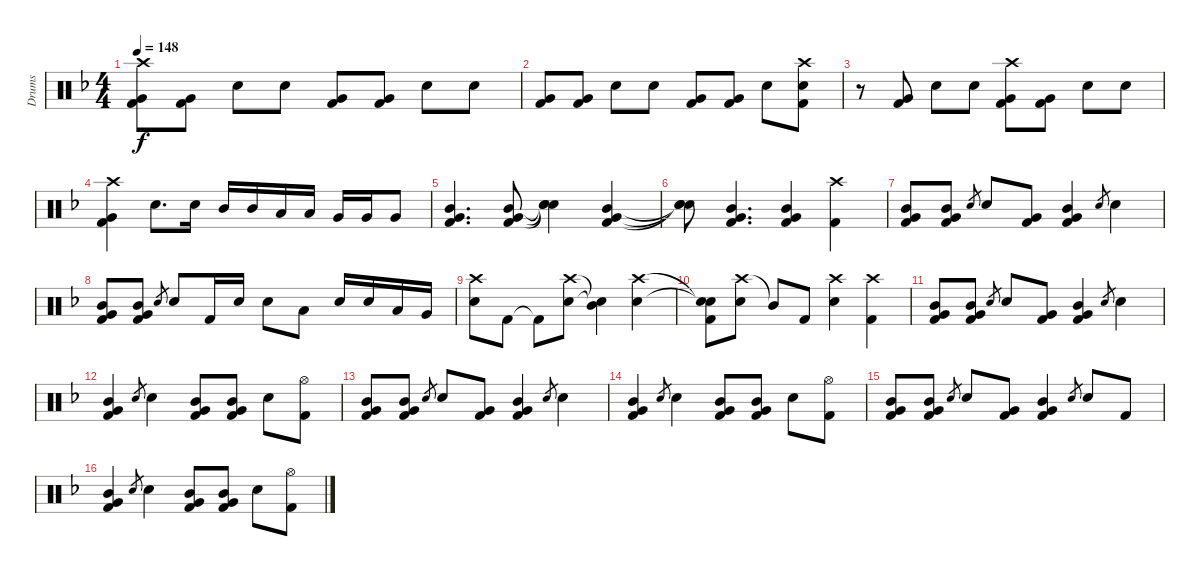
\track ("Drums" "Drums") {instrument percussion}
\staff {score}
\articulation defaults
\ts (4 4)
\tempo 148
\clef neutral
\ks f
("Crash high (hit)" "Very Low Tom (hit)" "Kick (hit) 2").8{dy f} ("Very Low Tom (hit)" "Kick (hit) 2").8 "Snare (hit) 2".8 "Snare (hit) 2".8 ("Very Low Tom (hit)" "Kick (hit) 2").8 ("Very Low Tom (hit)" "Kick (hit) 2").8 "Snare (hit) 2".8 "Snare (hit) 2".8 |
("Very Low Tom (hit)" "Kick (hit) 2").8 ("Very Low Tom (hit)" "Kick (hit) 2").8 "Snare (hit) 2".8 "Snare (hit) 2".8 ("Very Low Tom (hit)" "Kick (hit) 2").8 ("Very Low Tom (hit)" "Kick (hit) 2").8 "Snare (hit) 2".8 ("Crash high (hit)" "Snare (hit) 2" "Kick (hit) 2").8 |
r.8 ("Very Low Tom (hit)" "Kick (hit) 2").8 "Snare (hit) 2".8 "Snare (hit) 2".8 ("Crash high (hit)" "Very Low Tom (hit)" "Kick (hit) 2").8 ("Very Low Tom (hit)" "Kick (hit) 2").8 "Snare (hit) 2".8 "Snare (hit) 2".8 |
("Crash high (hit)" "Very Low Tom (hit)" "Kick (hit) 2").4 "Snare (hit) 2".8{d} "Snare (hit) 2".16 "Mid Tom (hit)".16 "Mid Tom (hit)".16 "Low Tom (hit)".16 "Low Tom (hit)".16 "Very Low Tom (hit)".16 "Very Low Tom (hit)".16 "Very Low Tom (hit)".8 |
("Mid Tom (hit)" "Very Low Tom (hit)" "Kick (hit) 2").4{d} ("Mid Tom (hit)" "Very Low Tom (hit)" "Kick (hit) 2").8 ("Snare (hit)"{t} "Snare (hit)"{t} "Snare (hit)"{t}).4 ("Mid Tom (hit)" "Very Low Tom (hit)" "Kick (hit) 2").4 |
("Snare (hit)"{t} "Snare (hit)"{t} "Snare (hit)"{t}).8 ("Mid Tom (hit)" "Very Low Tom (hit)" "Kick (hit) 2").4{d} ("Mid Tom (hit)" "Very Low Tom (hit)" "Kick (hit) 2").4 ("Crash high (hit)" "Kick (hit) 2").4 |
("Mid Tom (hit)" "Very Low Tom (hit)" "Kick (hit) 2").8 ("Mid Tom (hit)" "Very Low Tom (hit)" "Kick (hit) 2").8 "Snare (hit) 2".8{gr} "Snare (hit) 2".8 ("Very Low Tom (hit)" "Kick (hit) 2").8 ("Mid Tom (hit)" "Very Low Tom (hit)" "Kick (hit) 2").4 "Snare (hit) 2".8{gr} "Snare (hit) 2".4 |
("Mid Tom (hit)" "Very Low Tom (hit)" "Kick (hit) 2").8 ("Mid Tom (hit)" "Very Low Tom (hit)" "Kick (hit) 2").8 "Snare (hit) 2".8{gr} "Snare (hit) 2".8 "Kick (hit) 2".16 "Snare (hit) 2".16 "Snare (hit) 2".8 "Low Tom (hit)".8 "Snare (hit) 2".16 "Snare (hit) 2".16 "Low Tom (hit)".16 "Very Low Tom (hit)".16 |
("Crash high (hit)" "Snare (hit) 2").8 "Kick (hit) 2".8 "Kick (hit) 2"{t}.8 ("Crash high (hit)" "Snare (hit) 2").8 ("Snare (hit)"{t} "Mid Tom (hit)"{t}).4 ("Crash high (hit)" "Snare (hit) 2").4 |
("Snare (hit)"{t} "Snare (hit)"{t} "Kick (hit) 2").8 ("Crash high (hit)" "Snare (hit) 2").8 "Mid Tom (hit)"{t}.8 "Kick (hit) 2".8 ("Crash high (hit)" "Snare (hit) 2").4 ("Crash high (hit)" "Kick (hit) 2").4 |
("Mid Tom (hit)" "Very Low Tom (hit)" "Kick (hit) 2").8 ("Mid Tom (hit)" "Very Low Tom (hit)" "Kick (hit) 2").8 "Snare (hit) 2".8{gr} "Snare (hit) 2".8 ("Very Low Tom (hit)" "Kick (hit) 2").8 ("Mid Tom (hit)" "Very Low Tom (hit)" "Kick (hit) 2").4 "Snare (hit) 2".8{gr} "Snare (hit) 2".4 |
("Mid Tom (hit)" "Very Low Tom (hit)" "Kick (hit) 2").4 "Snare (hit) 2".8{gr} "Snare (hit) 2".4 ("Mid Tom (hit)" "Very Low Tom (hit)" "Kick (hit) 2").8 ("Mid Tom (hit)" "Very Low Tom (hit)" "Kick (hit) 2").8 "Snare (hit) 2".8 ("Hi-Hat (open)" "Kick (hit) 2").8 |
("Mid Tom (hit)" "Very Low Tom (hit)" "Kick (hit) 2").8 ("Mid Tom (hit)" "Very Low Tom (hit)" "Kick (hit) 2").8 "Snare (hit) 2".8{gr} "Snare (hit) 2".8 ("Very Low Tom (hit)" "Kick (hit) 2").8 ("Mid Tom (hit)" "Very Low Tom (hit)" "Kick (hit) 2").4 "Snare (hit) 2".8{gr} "Snare (hit) 2".4 |
("Mid Tom (hit)" "Very Low Tom (hit)" "Kick (hit) 2").4 "Snare (hit) 2".8{gr} "Snare (hit) 2".4 ("Mid Tom (hit)" "Very Low Tom (hit)" "Kick (hit) 2").8 ("Mid Tom (hit)" "Very Low Tom (hit)" "Kick (hit) 2").8 "Snare (hit) 2".8 ("Hi-Hat (open)" "Kick (hit) 2").8 |
("Mid Tom (hit)" "Very Low Tom (hit)" "Kick (hit) 2").8 ("Mid Tom (hit)" "Very Low Tom (hit)" "Kick (hit) 2").8 "Snare (hit) 2".8{gr} "Snare (hit) 2".8 ("Very Low Tom (hit)" "Kick (hit) 2").8 ("Mid Tom (hit)" "Very Low Tom (hit)" "Kick (hit) 2").4 "Snare (hit) 2".8{gr} "Snare (hit) 2".8 "Kick (hit) 2".8 |
("Mid Tom (hit)" "Very Low Tom (hit)" "Kick (hit) 2").4 "Snare (hit) 2".8{gr} "Snare (hit) 2".4 ("Mid Tom (hit)" "Very Low Tom (hit)" "Kick (hit) 2").8 ("Mid Tom (hit)" "Very Low Tom (hit)" "Kick (hit) 2").8 "Snare (hit) 2".8 ("Hi-Hat (open)" "Kick (hit) 2").8
